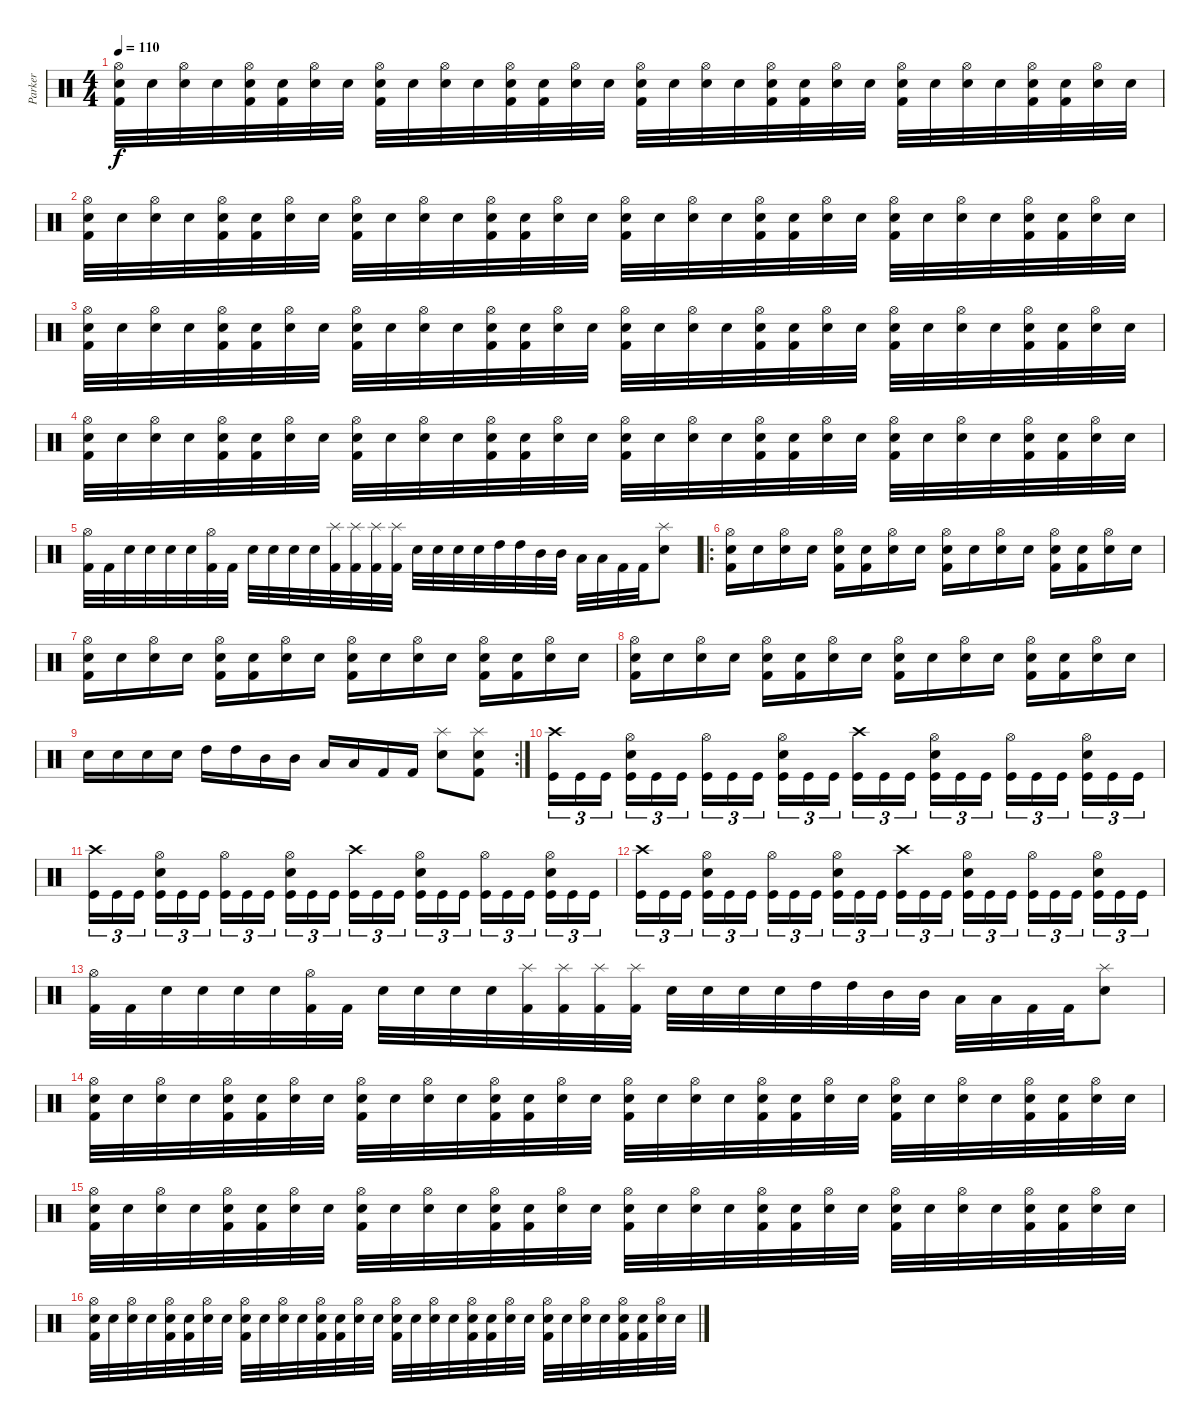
\track ("Parker" "Parker") {instrument percussion}
\staff {score}
\articulation defaults
\ts (4 4)
\tempo 110
\clef neutral
\ks c
("Hi-Hat (open)" "Kick (hit) 2" "Snare (hit)").32{dy f} "Snare (hit)".32 ("Hi-Hat (open)" "Electric Snare (hit)").32 "Snare (hit)".32 ("Hi-Hat (open)" "Kick (hit) 2" "Snare (hit)").32 ("Kick (hit) 2" "Snare (hit)").32 ("Hi-Hat (open)" "Electric Snare (hit)").32 "Snare (hit)".32 ("Hi-Hat (open)" "Kick (hit) 2" "Snare (hit)").32 "Snare (hit)".32 ("Hi-Hat (open)" "Electric Snare (hit)").32 "Snare (hit)".32 ("Hi-Hat (open)" "Kick (hit) 2" "Snare (hit)").32 ("Kick (hit) 2" "Snare (hit)").32 ("Hi-Hat (open)" "Electric Snare (hit)").32 "Snare (hit)".32 ("Hi-Hat (open)" "Kick (hit) 2" "Snare (hit)").32 "Snare (hit)".32 ("Hi-Hat (open)" "Electric Snare (hit)").32 "Snare (hit)".32 ("Hi-Hat (open)" "Kick (hit) 2" "Snare (hit)").32 ("Kick (hit) 2" "Snare (hit)").32 ("Hi-Hat (open)" "Electric Snare (hit)").32 "Snare (hit)".32 ("Hi-Hat (open)" "Kick (hit) 2" "Snare (hit)").32 "Snare (hit)".32 ("Hi-Hat (open)" "Electric Snare (hit)").32 "Snare (hit)".32 ("Hi-Hat (open)" "Kick (hit) 2" "Snare (hit)").32 ("Kick (hit) 2" "Snare (hit)").32 ("Hi-Hat (open)" "Electric Snare (hit)").32 "Snare (hit)".32 |
("Hi-Hat (open)" "Kick (hit) 2" "Snare (hit)").32 "Snare (hit)".32 ("Hi-Hat (open)" "Electric Snare (hit)").32 "Snare (hit)".32 ("Hi-Hat (open)" "Kick (hit) 2" "Snare (hit)").32 ("Kick (hit) 2" "Snare (hit)").32 ("Hi-Hat (open)" "Electric Snare (hit)").32 "Snare (hit)".32 ("Hi-Hat (open)" "Kick (hit) 2" "Snare (hit)").32 "Snare (hit)".32 ("Hi-Hat (open)" "Electric Snare (hit)").32 "Snare (hit)".32 ("Hi-Hat (open)" "Kick (hit) 2" "Snare (hit)").32 ("Kick (hit) 2" "Snare (hit)").32 ("Hi-Hat (open)" "Electric Snare (hit)").32 "Snare (hit)".32 ("Hi-Hat (open)" "Kick (hit) 2" "Snare (hit)").32 "Snare (hit)".32 ("Hi-Hat (open)" "Electric Snare (hit)").32 "Snare (hit)".32 ("Hi-Hat (open)" "Kick (hit) 2" "Snare (hit)").32 ("Kick (hit) 2" "Snare (hit)").32 ("Hi-Hat (open)" "Electric Snare (hit)").32 "Snare (hit)".32 ("Hi-Hat (open)" "Kick (hit) 2" "Snare (hit)").32 "Snare (hit)".32 ("Hi-Hat (open)" "Electric Snare (hit)").32 "Snare (hit)".32 ("Hi-Hat (open)" "Kick (hit) 2" "Snare (hit)").32 ("Kick (hit) 2" "Snare (hit)").32 ("Hi-Hat (open)" "Electric Snare (hit)").32 "Snare (hit)".32 |
("Hi-Hat (open)" "Kick (hit) 2" "Snare (hit)").32 "Snare (hit)".32 ("Hi-Hat (open)" "Electric Snare (hit)").32 "Snare (hit)".32 ("Hi-Hat (open)" "Kick (hit) 2" "Snare (hit)").32 ("Kick (hit) 2" "Snare (hit)").32 ("Hi-Hat (open)" "Electric Snare (hit)").32 "Snare (hit)".32 ("Hi-Hat (open)" "Kick (hit) 2" "Snare (hit)").32 "Snare (hit)".32 ("Hi-Hat (open)" "Electric Snare (hit)").32 "Snare (hit)".32 ("Hi-Hat (open)" "Kick (hit) 2" "Snare (hit)").32 ("Kick (hit) 2" "Snare (hit)").32 ("Hi-Hat (open)" "Electric Snare (hit)").32 "Snare (hit)".32 ("Hi-Hat (open)" "Kick (hit) 2" "Snare (hit)").32 "Snare (hit)".32 ("Hi-Hat (open)" "Electric Snare (hit)").32 "Snare (hit)".32 ("Hi-Hat (open)" "Kick (hit) 2" "Snare (hit)").32 ("Kick (hit) 2" "Snare (hit)").32 ("Hi-Hat (open)" "Electric Snare (hit)").32 "Snare (hit)".32 ("Hi-Hat (open)" "Kick (hit) 2" "Snare (hit)").32 "Snare (hit)".32 ("Hi-Hat (open)" "Electric Snare (hit)").32 "Snare (hit)".32 ("Hi-Hat (open)" "Kick (hit) 2" "Snare (hit)").32 ("Kick (hit) 2" "Snare (hit)").32 ("Hi-Hat (open)" "Electric Snare (hit)").32 "Snare (hit)".32 |
("Hi-Hat (open)" "Kick (hit) 2" "Snare (hit)").32 "Snare (hit)".32 ("Hi-Hat (open)" "Electric Snare (hit)").32 "Snare (hit)".32 ("Hi-Hat (open)" "Kick (hit) 2" "Snare (hit)").32 ("Kick (hit) 2" "Snare (hit)").32 ("Hi-Hat (open)" "Electric Snare (hit)").32 "Snare (hit)".32 ("Hi-Hat (open)" "Kick (hit) 2" "Snare (hit)").32 "Snare (hit)".32 ("Hi-Hat (open)" "Electric Snare (hit)").32 "Snare (hit)".32 ("Hi-Hat (open)" "Kick (hit) 2" "Snare (hit)").32 ("Kick (hit) 2" "Snare (hit)").32 ("Hi-Hat (open)" "Electric Snare (hit)").32 "Snare (hit)".32 ("Hi-Hat (open)" "Kick (hit) 2" "Snare (hit)").32 "Snare (hit)".32 ("Hi-Hat (open)" "Electric Snare (hit)").32 "Snare (hit)".32 ("Hi-Hat (open)" "Kick (hit) 2" "Snare (hit)").32 ("Kick (hit) 2" "Snare (hit)").32 ("Hi-Hat (open)" "Electric Snare (hit)").32 "Snare (hit)".32 ("Hi-Hat (open)" "Kick (hit) 2" "Snare (hit)").32 "Snare (hit)".32 ("Hi-Hat (open)" "Electric Snare (hit)").32 "Snare (hit)".32 ("Hi-Hat (open)" "Kick (hit) 2" "Snare (hit)").32 ("Kick (hit) 2" "Snare (hit)").32 ("Hi-Hat (open)" "Electric Snare (hit)").32 "Snare (hit)".32 |
("Hi-Hat (open)" "Kick (hit) 2").32 "Kick (hit) 2".32 "Electric Snare (hit)".32 "Electric Snare (hit)".32 "Electric Snare (hit)".32 "Electric Snare (hit)".32 ("Hi-Hat (open)" "Kick (hit) 2").32 "Kick (hit) 2".32 "Electric Snare (hit)".32 "Electric Snare (hit)".32 "Electric Snare (hit)".32 "Electric Snare (hit)".32 ("Splash (hit)" "Kick (hit) 2").32 ("Splash (hit)" "Kick (hit) 2").32 ("Splash (hit)" "Kick (hit) 2").32 ("Splash (hit)" "Kick (hit) 2").32 "Electric Snare (hit)".32 "Electric Snare (hit)".32 "Electric Snare (hit)".32 "Electric Snare (hit)".32 "High Tom (hit)".32 "High Tom (hit)".32 "Mid Tom (hit)".32 "Mid Tom (hit)".32 "Low Tom (hit)".32 "Low Tom (hit)".32 "Kick (hit) 2".32 "Kick (hit) 2".32 ("Splash (hit)" "Electric Snare (hit)").8 |
\ro
("Hi-Hat (open)" "Kick (hit) 2" "Snare (hit)").16 "Snare (hit)".16 ("Hi-Hat (open)" "Electric Snare (hit)").16 "Snare (hit)".16 ("Hi-Hat (open)" "Kick (hit) 2" "Snare (hit)").16 ("Kick (hit) 2" "Snare (hit)").16 ("Hi-Hat (open)" "Electric Snare (hit)").16 "Snare (hit)".16 ("Hi-Hat (open)" "Kick (hit) 2" "Snare (hit)").16 "Snare (hit)".16 ("Hi-Hat (open)" "Electric Snare (hit)").16 "Snare (hit)".16 ("Hi-Hat (open)" "Kick (hit) 2" "Snare (hit)").16 ("Kick (hit) 2" "Snare (hit)").16 ("Hi-Hat (open)" "Electric Snare (hit)").16 "Snare (hit)".16 |
("Hi-Hat (open)" "Kick (hit) 2" "Snare (hit)").16 "Snare (hit)".16 ("Hi-Hat (open)" "Electric Snare (hit)").16 "Snare (hit)".16 ("Hi-Hat (open)" "Kick (hit) 2" "Snare (hit)").16 ("Kick (hit) 2" "Snare (hit)").16 ("Hi-Hat (open)" "Electric Snare (hit)").16 "Snare (hit)".16 ("Hi-Hat (open)" "Kick (hit) 2" "Snare (hit)").16 "Snare (hit)".16 ("Hi-Hat (open)" "Electric Snare (hit)").16 "Snare (hit)".16 ("Hi-Hat (open)" "Kick (hit) 2" "Snare (hit)").16 ("Kick (hit) 2" "Snare (hit)").16 ("Hi-Hat (open)" "Electric Snare (hit)").16 "Snare (hit)".16 |
("Hi-Hat (open)" "Kick (hit) 2" "Snare (hit)").16 "Snare (hit)".16 ("Hi-Hat (open)" "Electric Snare (hit)").16 "Snare (hit)".16 ("Hi-Hat (open)" "Kick (hit) 2" "Snare (hit)").16 ("Kick (hit) 2" "Snare (hit)").16 ("Hi-Hat (open)" "Electric Snare (hit)").16 "Snare (hit)".16 ("Hi-Hat (open)" "Kick (hit) 2" "Snare (hit)").16 "Snare (hit)".16 ("Hi-Hat (open)" "Electric Snare (hit)").16 "Snare (hit)".16 ("Hi-Hat (open)" "Kick (hit) 2" "Snare (hit)").16 ("Kick (hit) 2" "Snare (hit)").16 ("Hi-Hat (open)" "Electric Snare (hit)").16 "Snare (hit)".16 |
\rc 2 "Electric Snare (hit)".16 "Electric Snare (hit)".16 "Electric Snare (hit)".16 "Electric Snare (hit)".16 "High Tom (hit)".16 "High Tom (hit)".16 "Mid Tom (hit)".16 "Mid Tom (hit)".16 "Low Tom (hit)".16 "Low Tom (hit)".16 "Kick (hit) 2".16 "Kick (hit) 2".16
("Splash (hit)" "Electric Snare (hit)").8 ("Splash (hit)" "Electric Snare (hit)" "Kick (hit) 2").8 |
("Crash high (hit)" "Kick (hit)").16{tu (3 2)} "Kick (hit)".16{tu (3 2)} "Kick (hit)".16{tu (3 2) beam splitsecondary} ("Hi-Hat (open)" "Electric Snare (hit)" "Kick (hit)").16{tu (3 2)} "Kick (hit)".16{tu (3 2)} "Kick (hit)".16{tu (3 2)} ("Hi-Hat (open)" "Kick (hit)").16{tu (3 2)} "Kick (hit)".16{tu (3 2)} "Kick (hit)".16{tu (3 2) beam splitsecondary} ("Hi-Hat (open)" "Electric Snare (hit)" "Kick (hit)").16{tu (3 2)} "Kick (hit)".16{tu (3 2)} "Kick (hit)".16{tu (3 2)} ("Crash high (hit)" "Kick (hit)").16{tu (3 2)} "Kick (hit)".16{tu (3 2)} "Kick (hit)".16{tu (3 2) beam splitsecondary} ("Hi-Hat (open)" "Electric Snare (hit)" "Kick (hit)").16{tu (3 2)} "Kick (hit)".16{tu (3 2)} "Kick (hit)".16{tu (3 2)} ("Hi-Hat (open)" "Kick (hit)").16{tu (3 2)} "Kick (hit)".16{tu (3 2)} "Kick (hit)".16{tu (3 2) beam splitsecondary} ("Hi-Hat (open)" "Electric Snare (hit)" "Kick (hit)").16{tu (3 2)} "Kick (hit)".16{tu (3 2)} "Kick (hit)".16{tu (3 2)} |
("Crash high (hit)" "Kick (hit)").16{tu (3 2)} "Kick (hit)".16{tu (3 2)} "Kick (hit)".16{tu (3 2) beam splitsecondary} ("Hi-Hat (open)" "Electric Snare (hit)" "Kick (hit)").16{tu (3 2)} "Kick (hit)".16{tu (3 2)} "Kick (hit)".16{tu (3 2)} ("Hi-Hat (open)" "Kick (hit)").16{tu (3 2)} "Kick (hit)".16{tu (3 2)} "Kick (hit)".16{tu (3 2) beam splitsecondary} ("Hi-Hat (open)" "Electric Snare (hit)" "Kick (hit)").16{tu (3 2)} "Kick (hit)".16{tu (3 2)} "Kick (hit)".16{tu (3 2)} ("Crash high (hit)" "Kick (hit)").16{tu (3 2)} "Kick (hit)".16{tu (3 2)} "Kick (hit)".16{tu (3 2) beam splitsecondary} ("Hi-Hat (open)" "Electric Snare (hit)" "Kick (hit)").16{tu (3 2)} "Kick (hit)".16{tu (3 2)} "Kick (hit)".16{tu (3 2)} ("Hi-Hat (open)" "Kick (hit)").16{tu (3 2)} "Kick (hit)".16{tu (3 2)} "Kick (hit)".16{tu (3 2) beam splitsecondary} ("Hi-Hat (open)" "Electric Snare (hit)" "Kick (hit)").16{tu (3 2)} "Kick (hit)".16{tu (3 2)} "Kick (hit)".16{tu (3 2)} |
("Crash high (hit)" "Kick (hit)").16{tu (3 2)} "Kick (hit)".16{tu (3 2)} "Kick (hit)".16{tu (3 2) beam splitsecondary} ("Hi-Hat (open)" "Electric Snare (hit)" "Kick (hit)").16{tu (3 2)} "Kick (hit)".16{tu (3 2)} "Kick (hit)".16{tu (3 2)} ("Hi-Hat (open)" "Kick (hit)").16{tu (3 2)} "Kick (hit)".16{tu (3 2)} "Kick (hit)".16{tu (3 2) beam splitsecondary} ("Hi-Hat (open)" "Electric Snare (hit)" "Kick (hit)").16{tu (3 2)} "Kick (hit)".16{tu (3 2)} "Kick (hit)".16{tu (3 2)} ("Crash high (hit)" "Kick (hit)").16{tu (3 2)} "Kick (hit)".16{tu (3 2)} "Kick (hit)".16{tu (3 2) beam splitsecondary} ("Hi-Hat (open)" "Electric Snare (hit)" "Kick (hit)").16{tu (3 2)} "Kick (hit)".16{tu (3 2)} "Kick (hit)".16{tu (3 2)} ("Hi-Hat (open)" "Kick (hit)").16{tu (3 2)} "Kick (hit)".16{tu (3 2)} "Kick (hit)".16{tu (3 2) beam splitsecondary} ("Hi-Hat (open)" "Electric Snare (hit)" "Kick (hit)").16{tu (3 2)} "Kick (hit)".16{tu (3 2)} "Kick (hit)".16{tu (3 2)} |
("Hi-Hat (open)" "Kick (hit) 2").32 "Kick (hit) 2".32 "Electric Snare (hit)".32 "Electric Snare (hit)".32 "Electric Snare (hit)".32 "Electric Snare (hit)".32 ("Hi-Hat (open)" "Kick (hit) 2").32 "Kick (hit) 2".32 "Electric Snare (hit)".32 "Electric Snare (hit)".32 "Electric Snare (hit)".32 "Electric Snare (hit)".32 ("Splash (hit)" "Kick (hit) 2").32 ("Splash (hit)" "Kick (hit) 2").32 ("Splash (hit)" "Kick (hit) 2").32 ("Splash (hit)" "Kick (hit) 2").32 "Electric Snare (hit)".32 "Electric Snare (hit)".32 "Electric Snare (hit)".32 "Electric Snare (hit)".32 "High Tom (hit)".32 "High Tom (hit)".32 "Mid Tom (hit)".32 "Mid Tom (hit)".32 "Low Tom (hit)".32 "Low Tom (hit)".32 "Kick (hit) 2".32 "Kick (hit) 2".32 ("Splash (hit)" "Electric Snare (hit)").8 |
("Hi-Hat (open)" "Kick (hit) 2" "Snare (hit)").32 "Snare (hit)".32 ("Hi-Hat (open)" "Electric Snare (hit)").32 "Snare (hit)".32 ("Hi-Hat (open)" "Kick (hit) 2" "Snare (hit)").32 ("Kick (hit) 2" "Snare (hit)").32 ("Hi-Hat (open)" "Electric Snare (hit)").32 "Snare (hit)".32 ("Hi-Hat (open)" "Kick (hit) 2" "Snare (hit)").32 "Snare (hit)".32 ("Hi-Hat (open)" "Electric Snare (hit)").32 "Snare (hit)".32 ("Hi-Hat (open)" "Kick (hit) 2" "Snare (hit)").32 ("Kick (hit) 2" "Snare (hit)").32 ("Hi-Hat (open)" "Electric Snare (hit)").32 "Snare (hit)".32 ("Hi-Hat (open)" "Kick (hit) 2" "Snare (hit)").32 "Snare (hit)".32 ("Hi-Hat (open)" "Electric Snare (hit)").32 "Snare (hit)".32 ("Hi-Hat (open)" "Kick (hit) 2" "Snare (hit)").32 ("Kick (hit) 2" "Snare (hit)").32 ("Hi-Hat (open)" "Electric Snare (hit)").32 "Snare (hit)".32 ("Hi-Hat (open)" "Kick (hit) 2" "Snare (hit)").32 "Snare (hit)".32 ("Hi-Hat (open)" "Electric Snare (hit)").32 "Snare (hit)".32 ("Hi-Hat (open)" "Kick (hit) 2" "Snare (hit)").32 ("Kick (hit) 2" "Snare (hit)").32 ("Hi-Hat (open)" "Electric Snare (hit)").32 "Snare (hit)".32 |
("Hi-Hat (open)" "Kick (hit) 2" "Snare (hit)").32 "Snare (hit)".32 ("Hi-Hat (open)" "Electric Snare (hit)").32 "Snare (hit)".32 ("Hi-Hat (open)" "Kick (hit) 2" "Snare (hit)").32 ("Kick (hit) 2" "Snare (hit)").32 ("Hi-Hat (open)" "Electric Snare (hit)").32 "Snare (hit)".32 ("Hi-Hat (open)" "Kick (hit) 2" "Snare (hit)").32 "Snare (hit)".32 ("Hi-Hat (open)" "Electric Snare (hit)").32 "Snare (hit)".32 ("Hi-Hat (open)" "Kick (hit) 2" "Snare (hit)").32 ("Kick (hit) 2" "Snare (hit)").32 ("Hi-Hat (open)" "Electric Snare (hit)").32 "Snare (hit)".32 ("Hi-Hat (open)" "Kick (hit) 2" "Snare (hit)").32 "Snare (hit)".32 ("Hi-Hat (open)" "Electric Snare (hit)").32 "Snare (hit)".32 ("Hi-Hat (open)" "Kick (hit) 2" "Snare (hit)").32 ("Kick (hit) 2" "Snare (hit)").32 ("Hi-Hat (open)" "Electric Snare (hit)").32 "Snare (hit)".32 ("Hi-Hat (open)" "Kick (hit) 2" "Snare (hit)").32 "Snare (hit)".32 ("Hi-Hat (open)" "Electric Snare (hit)").32 "Snare (hit)".32 ("Hi-Hat (open)" "Kick (hit) 2" "Snare (hit)").32 ("Kick (hit) 2" "Snare (hit)").32 ("Hi-Hat (open)" "Electric Snare (hit)").32 "Snare (hit)".32 |
("Hi-Hat (open)" "Kick (hit) 2" "Snare (hit)").32 "Snare (hit)".32 ("Hi-Hat (open)" "Electric Snare (hit)").32 "Snare (hit)".32 ("Hi-Hat (open)" "Kick (hit) 2" "Snare (hit)").32 ("Kick (hit) 2" "Snare (hit)").32 ("Hi-Hat (open)" "Electric Snare (hit)").32 "Snare (hit)".32 ("Hi-Hat (open)" "Kick (hit) 2" "Snare (hit)").32 "Snare (hit)".32 ("Hi-Hat (open)" "Electric Snare (hit)").32 "Snare (hit)".32 ("Hi-Hat (open)" "Kick (hit) 2" "Snare (hit)").32 ("Kick (hit) 2" "Snare (hit)").32 ("Hi-Hat (open)" "Electric Snare (hit)").32 "Snare (hit)".32 ("Hi-Hat (open)" "Kick (hit) 2" "Snare (hit)").32 "Snare (hit)".32 ("Hi-Hat (open)" "Electric Snare (hit)").32 "Snare (hit)".32 ("Hi-Hat (open)" "Kick (hit) 2" "Snare (hit)").32 ("Kick (hit) 2" "Snare (hit)").32 ("Hi-Hat (open)" "Electric Snare (hit)").32 "Snare (hit)".32 ("Hi-Hat (open)" "Kick (hit) 2" "Snare (hit)").32 "Snare (hit)".32 ("Hi-Hat (open)" "Electric Snare (hit)").32 "Snare (hit)".32 ("Hi-Hat (open)" "Kick (hit) 2" "Snare (hit)").32 ("Kick (hit) 2" "Snare (hit)").32 ("Hi-Hat (open)" "Electric Snare (hit)").32 "Snare (hit)".32
